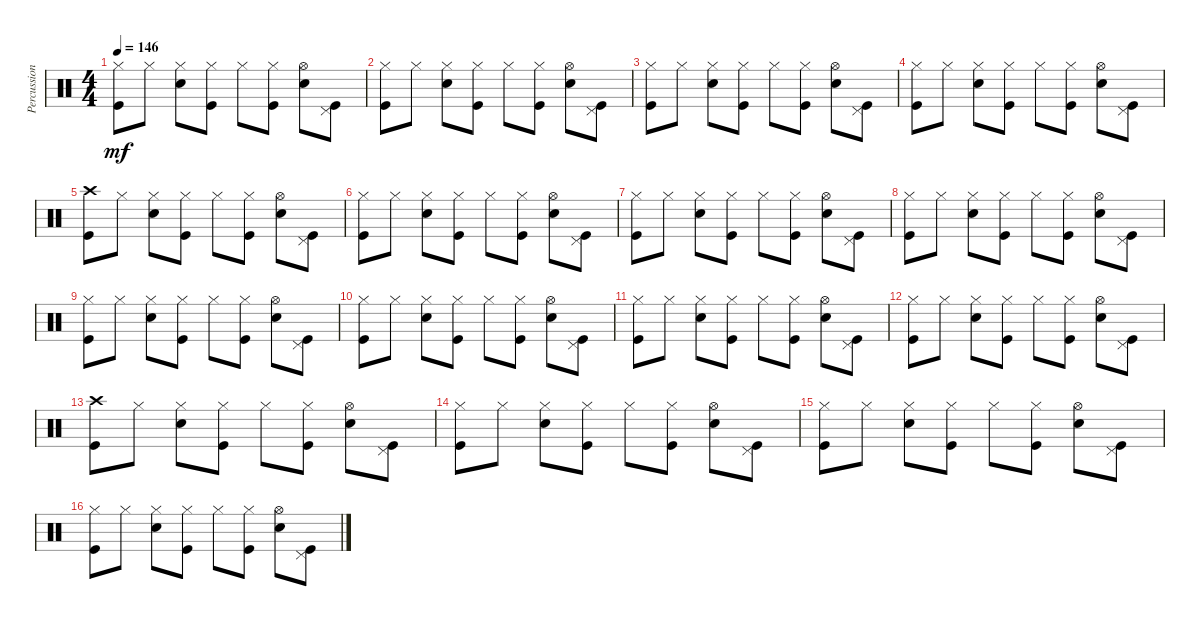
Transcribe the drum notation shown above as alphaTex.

\track ("Percussion" "Percussion") {instrument percussion}
\staff {score}
\articulation defaults
\ts (4 4)
\tempo 146
\clef neutral
\ks c
("Hi-Hat (closed)" "Kick (hit)").8{dy mf} "Hi-Hat (closed)".8 ("Hi-Hat (closed)" "Snare (hit) 2").8 ("Hi-Hat (closed)" "Kick (hit)").8 "Hi-Hat (closed)".8 ("Hi-Hat (closed)" "Kick (hit)").8 ("Hi-Hat (open)" "Snare (hit) 2").8 ("Pedal Hi-Hat (hit)" "Kick (hit)").8 |
("Hi-Hat (closed)" "Kick (hit)").8 "Hi-Hat (closed)".8 ("Hi-Hat (closed)" "Snare (hit) 2").8 ("Hi-Hat (closed)" "Kick (hit)").8 "Hi-Hat (closed)".8 ("Hi-Hat (closed)" "Kick (hit)").8 ("Hi-Hat (open)" "Snare (hit) 2").8 ("Pedal Hi-Hat (hit)" "Kick (hit)").8 |
("Hi-Hat (closed)" "Kick (hit)").8 "Hi-Hat (closed)".8 ("Hi-Hat (closed)" "Snare (hit) 2").8 ("Hi-Hat (closed)" "Kick (hit)").8 "Hi-Hat (closed)".8 ("Hi-Hat (closed)" "Kick (hit)").8 ("Hi-Hat (open)" "Snare (hit) 2").8 ("Pedal Hi-Hat (hit)" "Kick (hit)").8 |
("Hi-Hat (closed)" "Kick (hit)").8 "Hi-Hat (closed)".8 ("Hi-Hat (closed)" "Snare (hit) 2").8 ("Hi-Hat (closed)" "Kick (hit)").8 "Hi-Hat (closed)".8 ("Hi-Hat (closed)" "Kick (hit)").8 ("Hi-Hat (open)" "Snare (hit) 2").8 ("Pedal Hi-Hat (hit)" "Kick (hit)").8 |
("Crash high (hit)" "Kick (hit)").8 "Hi-Hat (closed)".8 ("Hi-Hat (closed)" "Snare (hit) 2").8 ("Hi-Hat (closed)" "Kick (hit)").8 "Hi-Hat (closed)".8 ("Hi-Hat (closed)" "Kick (hit)").8 ("Hi-Hat (open)" "Snare (hit) 2").8 ("Pedal Hi-Hat (hit)" "Kick (hit)").8 |
("Hi-Hat (closed)" "Kick (hit)").8 "Hi-Hat (closed)".8 ("Hi-Hat (closed)" "Snare (hit) 2").8 ("Hi-Hat (closed)" "Kick (hit)").8 "Hi-Hat (closed)".8 ("Hi-Hat (closed)" "Kick (hit)").8 ("Hi-Hat (open)" "Snare (hit) 2").8 ("Pedal Hi-Hat (hit)" "Kick (hit)").8 |
("Hi-Hat (closed)" "Kick (hit)").8 "Hi-Hat (closed)".8 ("Hi-Hat (closed)" "Snare (hit) 2").8 ("Hi-Hat (closed)" "Kick (hit)").8 "Hi-Hat (closed)".8 ("Hi-Hat (closed)" "Kick (hit)").8 ("Hi-Hat (open)" "Snare (hit) 2").8 ("Pedal Hi-Hat (hit)" "Kick (hit)").8 |
("Hi-Hat (closed)" "Kick (hit)").8 "Hi-Hat (closed)".8 ("Hi-Hat (closed)" "Snare (hit) 2").8 ("Hi-Hat (closed)" "Kick (hit)").8 "Hi-Hat (closed)".8 ("Hi-Hat (closed)" "Kick (hit)").8 ("Hi-Hat (open)" "Snare (hit) 2").8 ("Pedal Hi-Hat (hit)" "Kick (hit)").8 |
("Hi-Hat (closed)" "Kick (hit)").8 "Hi-Hat (closed)".8 ("Hi-Hat (closed)" "Snare (hit) 2").8 ("Hi-Hat (closed)" "Kick (hit)").8 "Hi-Hat (closed)".8 ("Hi-Hat (closed)" "Kick (hit)").8 ("Hi-Hat (open)" "Snare (hit) 2").8 ("Pedal Hi-Hat (hit)" "Kick (hit)").8 |
("Hi-Hat (closed)" "Kick (hit)").8 "Hi-Hat (closed)".8 ("Hi-Hat (closed)" "Snare (hit) 2").8 ("Hi-Hat (closed)" "Kick (hit)").8 "Hi-Hat (closed)".8 ("Hi-Hat (closed)" "Kick (hit)").8 ("Hi-Hat (open)" "Snare (hit) 2").8 ("Pedal Hi-Hat (hit)" "Kick (hit)").8 |
("Hi-Hat (closed)" "Kick (hit)").8 "Hi-Hat (closed)".8 ("Hi-Hat (closed)" "Snare (hit) 2").8 ("Hi-Hat (closed)" "Kick (hit)").8 "Hi-Hat (closed)".8 ("Hi-Hat (closed)" "Kick (hit)").8 ("Hi-Hat (open)" "Snare (hit) 2").8 ("Pedal Hi-Hat (hit)" "Kick (hit)").8 |
("Hi-Hat (closed)" "Kick (hit)").8 "Hi-Hat (closed)".8 ("Hi-Hat (closed)" "Snare (hit) 2").8 ("Hi-Hat (closed)" "Kick (hit)").8 "Hi-Hat (closed)".8 ("Hi-Hat (closed)" "Kick (hit)").8 ("Hi-Hat (open)" "Snare (hit) 2").8 ("Pedal Hi-Hat (hit)" "Kick (hit)").8 |
("Crash high (hit)" "Kick (hit)").8 "Hi-Hat (closed)".8 ("Hi-Hat (closed)" "Snare (hit) 2").8 ("Hi-Hat (closed)" "Kick (hit)").8 "Hi-Hat (closed)".8 ("Hi-Hat (closed)" "Kick (hit)").8 ("Hi-Hat (open)" "Snare (hit) 2").8 ("Pedal Hi-Hat (hit)" "Kick (hit)").8 |
("Hi-Hat (closed)" "Kick (hit)").8 "Hi-Hat (closed)".8 ("Hi-Hat (closed)" "Snare (hit) 2").8 ("Hi-Hat (closed)" "Kick (hit)").8 "Hi-Hat (closed)".8 ("Hi-Hat (closed)" "Kick (hit)").8 ("Hi-Hat (open)" "Snare (hit) 2").8 ("Pedal Hi-Hat (hit)" "Kick (hit)").8 |
("Hi-Hat (closed)" "Kick (hit)").8 "Hi-Hat (closed)".8 ("Hi-Hat (closed)" "Snare (hit) 2").8 ("Hi-Hat (closed)" "Kick (hit)").8 "Hi-Hat (closed)".8 ("Hi-Hat (closed)" "Kick (hit)").8 ("Hi-Hat (open)" "Snare (hit) 2").8 ("Pedal Hi-Hat (hit)" "Kick (hit)").8 |
("Hi-Hat (closed)" "Kick (hit)").8 "Hi-Hat (closed)".8 ("Hi-Hat (closed)" "Snare (hit) 2").8 ("Hi-Hat (closed)" "Kick (hit)").8 "Hi-Hat (closed)".8 ("Hi-Hat (closed)" "Kick (hit)").8 ("Hi-Hat (open)" "Snare (hit) 2").8 ("Pedal Hi-Hat (hit)" "Kick (hit)").8
